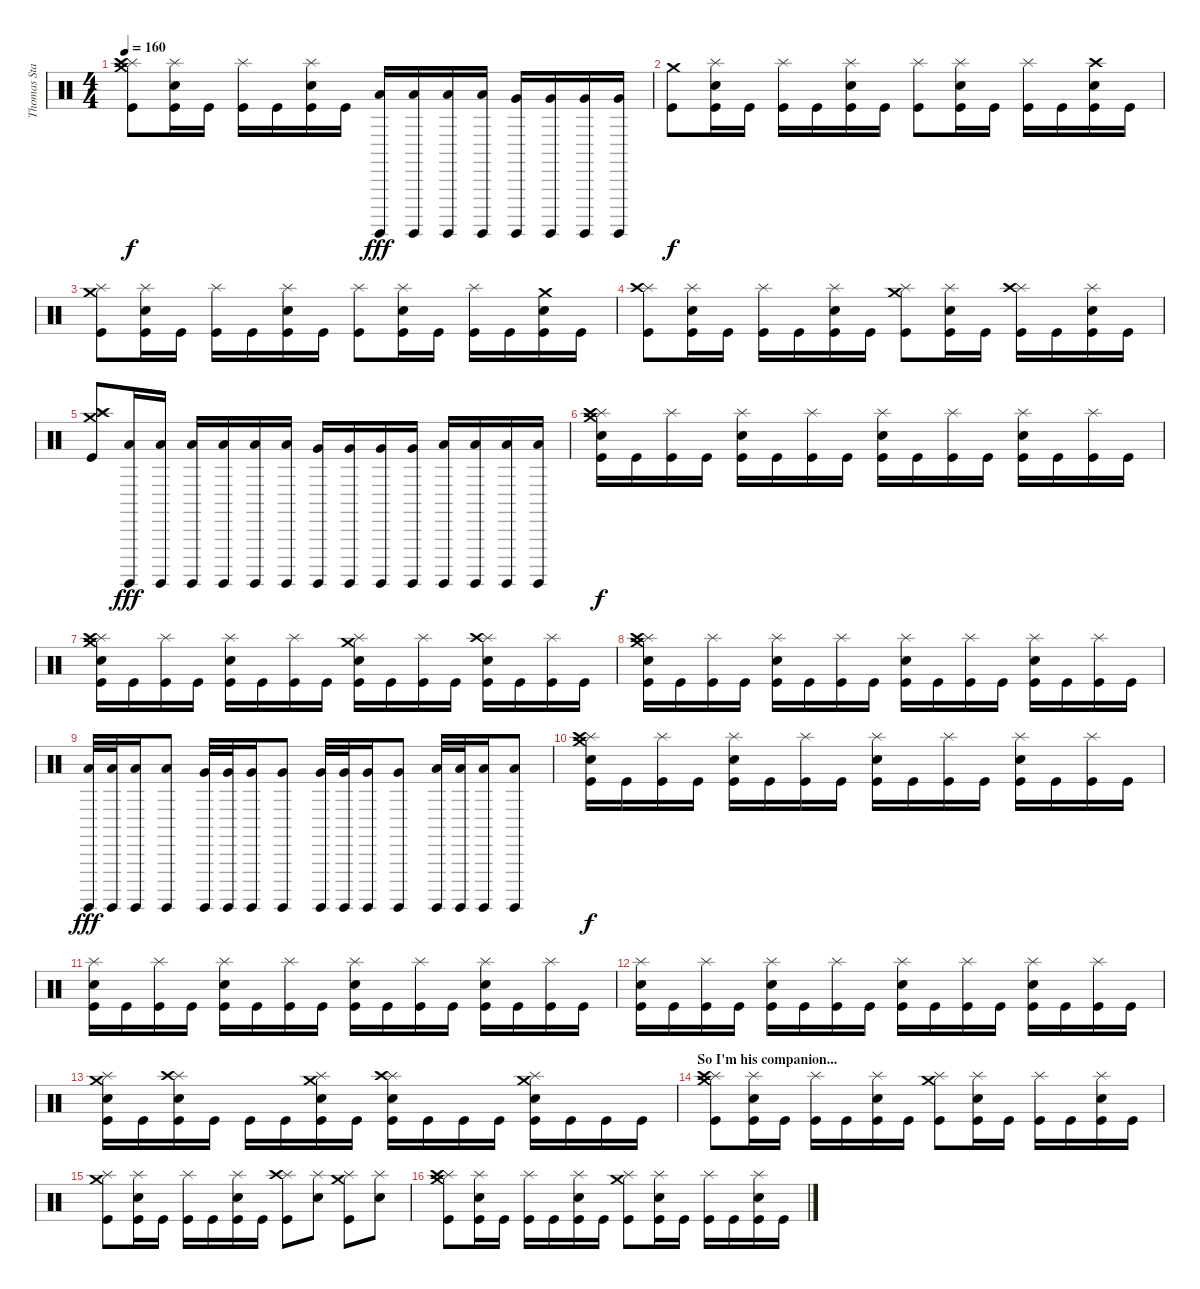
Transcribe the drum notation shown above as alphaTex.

\track ("Thomas Stauch" "Thomas Sta") {instrument percussion}
\staff {score}
\articulation defaults
\ts (4 4)
\tempo 160
\clef neutral
\ks c
("Crash medium (hit)" "Splash (hit)" "Crash high (hit)" "Kick (hit)").8{dy f} ("Splash (hit)" "Electric Snare (hit)" "Kick (hit)").16 "Kick (hit)".16 ("Splash (hit)" "Kick (hit)").16 "Kick (hit)".16 ("Splash (hit)" "Electric Snare (hit)" "Kick (hit)").16 "Kick (hit)".16 ("Surdo (hit)" "Low Tom (hit)").16{dy fff} ("Surdo (hit)" "Low Tom (hit)").16 ("Surdo (hit)" "Low Tom (hit)").16 ("Surdo (hit)" "Low Tom (hit)").16 ("Surdo (hit)" "Very Low Tom (hit)").16 ("Surdo (hit)" "Very Low Tom (hit)").16 ("Surdo (hit)" "Very Low Tom (hit)").16 ("Surdo (hit)" "Very Low Tom (hit)").16 |
("Crash medium (hit)" "Kick (hit)").8{dy f} ("Splash (hit)" "Electric Snare (hit)" "Kick (hit)").16 "Kick (hit)".16 ("Splash (hit)" "Kick (hit)").16 "Kick (hit)".16 ("Splash (hit)" "Electric Snare (hit)" "Kick (hit)").16 "Kick (hit)".16 ("Splash (hit)" "Kick (hit)").8 ("Splash (hit)" "Electric Snare (hit)" "Kick (hit)").16 "Kick (hit)".16 ("Splash (hit)" "Kick (hit)").16 "Kick (hit)".16 ("Crash high (hit)" "Electric Snare (hit)" "Kick (hit)").16 "Kick (hit)".16 |
("Crash medium (hit)" "Splash (hit)" "Kick (hit)").8 ("Splash (hit)" "Electric Snare (hit)" "Kick (hit)").16 "Kick (hit)".16 ("Splash (hit)" "Kick (hit)").16 "Kick (hit)".16 ("Splash (hit)" "Electric Snare (hit)" "Kick (hit)").16 "Kick (hit)".16 ("Splash (hit)" "Kick (hit)").8 ("Splash (hit)" "Electric Snare (hit)" "Kick (hit)").16 "Kick (hit)".16 ("Splash (hit)" "Kick (hit)").16 "Kick (hit)".16 ("Crash medium (hit)" "Electric Snare (hit)" "Kick (hit)").16 "Kick (hit)".16 |
("Splash (hit)" "Crash high (hit)" "Kick (hit)").8 ("Splash (hit)" "Electric Snare (hit)" "Kick (hit)").16 "Kick (hit)".16 ("Splash (hit)" "Kick (hit)").16 "Kick (hit)".16 ("Splash (hit)" "Electric Snare (hit)" "Kick (hit)").16 "Kick (hit)".16 ("Crash medium (hit)" "Splash (hit)" "Kick (hit)").8 ("Splash (hit)" "Electric Snare (hit)" "Kick (hit)").16 "Kick (hit)".16 ("Splash (hit)" "Crash high (hit)" "Kick (hit)").16 "Kick (hit)".16 ("Splash (hit)" "Electric Snare (hit)" "Kick (hit)").16 "Kick (hit)".16 |
("Crash medium (hit)" "Splash (hit)" "Crash high (hit)" "Kick (hit)").8 ("Surdo (hit)" "Low Tom (hit)").16{dy fff} ("Surdo (hit)" "Low Tom (hit)").16 ("Surdo (hit)" "Low Tom (hit)").16 ("Surdo (hit)" "Low Tom (hit)").16 ("Surdo (hit)" "Low Tom (hit)").16 ("Surdo (hit)" "Low Tom (hit)").16 ("Surdo (hit)" "Very Low Tom (hit)").16 ("Surdo (hit)" "Very Low Tom (hit)").16 ("Surdo (hit)" "Very Low Tom (hit)").16 ("Surdo (hit)" "Very Low Tom (hit)").16 ("Surdo (hit)" "Low Floor Tom (hit)").16 ("Surdo (hit)" "Low Floor Tom (hit)").16 ("Surdo (hit)" "Low Floor Tom (hit)").16 ("Surdo (hit)" "Low Floor Tom (hit)").16 |
("Crash medium (hit)" "Splash (hit)" "Crash high (hit)" "Electric Snare (hit)" "Kick (hit)").16{dy f} "Kick (hit)".16 ("Splash (hit)" "Kick (hit)").16 "Kick (hit)".16 ("Splash (hit)" "Electric Snare (hit)" "Kick (hit)").16 "Kick (hit)".16 ("Splash (hit)" "Kick (hit)").16 "Kick (hit)".16 ("Splash (hit)" "Electric Snare (hit)" "Kick (hit)").16 "Kick (hit)".16 ("Splash (hit)" "Kick (hit)").16 "Kick (hit)".16 ("Splash (hit)" "Electric Snare (hit)" "Kick (hit)").16 "Kick (hit)".16 ("Splash (hit)" "Kick (hit)").16 "Kick (hit)".16 |
("Crash medium (hit)" "Splash (hit)" "Crash high (hit)" "Electric Snare (hit)" "Kick (hit)").16 "Kick (hit)".16 ("Splash (hit)" "Kick (hit)").16 "Kick (hit)".16 ("Splash (hit)" "Electric Snare (hit)" "Kick (hit)").16 "Kick (hit)".16 ("Splash (hit)" "Kick (hit)").16 "Kick (hit)".16 ("Crash medium (hit)" "Splash (hit)" "Electric Snare (hit)" "Kick (hit)").16 "Kick (hit)".16 ("Splash (hit)" "Kick (hit)").16 "Kick (hit)".16 ("Splash (hit)" "Crash high (hit)" "Electric Snare (hit)" "Kick (hit)").16 "Kick (hit)".16 ("Splash (hit)" "Kick (hit)").16 "Kick (hit)".16 |
("Crash medium (hit)" "Splash (hit)" "Crash high (hit)" "Electric Snare (hit)" "Kick (hit)").16 "Kick (hit)".16 ("Splash (hit)" "Kick (hit)").16 "Kick (hit)".16 ("Splash (hit)" "Electric Snare (hit)" "Kick (hit)").16 "Kick (hit)".16 ("Splash (hit)" "Kick (hit)").16 "Kick (hit)".16 ("Splash (hit)" "Electric Snare (hit)" "Kick (hit)").16 "Kick (hit)".16 ("Splash (hit)" "Kick (hit)").16 "Kick (hit)".16 ("Splash (hit)" "Electric Snare (hit)" "Kick (hit)").16 "Kick (hit)".16 ("Splash (hit)" "Kick (hit)").16 "Kick (hit)".16 |
("Surdo (hit)" "Low Tom (hit)").32{dy fff} ("Surdo (hit)" "Low Tom (hit)").32 ("Surdo (hit)" "Low Tom (hit)").16 ("Surdo (hit)" "Low Tom (hit)").8 ("Surdo (hit)" "Very Low Tom (hit)").32 ("Surdo (hit)" "Very Low Tom (hit)").32 ("Surdo (hit)" "Very Low Tom (hit)").16 ("Surdo (hit)" "Very Low Tom (hit)").8 ("Surdo (hit)" "Very Low Tom (hit)").32 ("Surdo (hit)" "Very Low Tom (hit)").32 ("Surdo (hit)" "Very Low Tom (hit)").16 ("Surdo (hit)" "Very Low Tom (hit)").8 ("Surdo (hit)" "Low Floor Tom (hit)").32 ("Surdo (hit)" "Low Floor Tom (hit)").32 ("Surdo (hit)" "Low Floor Tom (hit)").16 ("Surdo (hit)" "Low Floor Tom (hit)").8 |
("Crash medium (hit)" "Splash (hit)" "Crash high (hit)" "Electric Snare (hit)" "Kick (hit)").16{dy f} "Kick (hit)".16 ("Splash (hit)" "Kick (hit)").16 "Kick (hit)".16 ("Splash (hit)" "Electric Snare (hit)" "Kick (hit)").16 "Kick (hit)".16 ("Splash (hit)" "Kick (hit)").16 "Kick (hit)".16 ("Splash (hit)" "Electric Snare (hit)" "Kick (hit)").16 "Kick (hit)".16 ("Splash (hit)" "Kick (hit)").16 "Kick (hit)".16 ("Splash (hit)" "Electric Snare (hit)" "Kick (hit)").16 "Kick (hit)".16 ("Splash (hit)" "Kick (hit)").16 "Kick (hit)".16 |
("Splash (hit)" "Electric Snare (hit)" "Kick (hit)").16 "Kick (hit)".16 ("Splash (hit)" "Kick (hit)").16 "Kick (hit)".16 ("Splash (hit)" "Electric Snare (hit)" "Kick (hit)").16 "Kick (hit)".16 ("Splash (hit)" "Kick (hit)").16 "Kick (hit)".16 ("Splash (hit)" "Electric Snare (hit)" "Kick (hit)").16 "Kick (hit)".16 ("Splash (hit)" "Kick (hit)").16 "Kick (hit)".16 ("Splash (hit)" "Electric Snare (hit)" "Kick (hit)").16 "Kick (hit)".16 ("Splash (hit)" "Kick (hit)").16 "Kick (hit)".16 |
("Splash (hit)" "Electric Snare (hit)" "Kick (hit)").16 "Kick (hit)".16 ("Splash (hit)" "Kick (hit)").16 "Kick (hit)".16 ("Splash (hit)" "Electric Snare (hit)" "Kick (hit)").16 "Kick (hit)".16 ("Splash (hit)" "Kick (hit)").16 "Kick (hit)".16 ("Splash (hit)" "Electric Snare (hit)" "Kick (hit)").16 "Kick (hit)".16 ("Splash (hit)" "Kick (hit)").16 "Kick (hit)".16 ("Splash (hit)" "Electric Snare (hit)" "Kick (hit)").16 "Kick (hit)".16 ("Splash (hit)" "Kick (hit)").16 "Kick (hit)".16 |
("Crash medium (hit)" "Splash (hit)" "Electric Snare (hit)" "Kick (hit)").16 "Kick (hit)".16 ("Splash (hit)" "Crash high (hit)" "Electric Snare (hit)" "Kick (hit)").16 "Kick (hit)".16 "Kick (hit)".16 "Kick (hit)".16 ("Crash medium (hit)" "Splash (hit)" "Electric Snare (hit)" "Kick (hit)").16 "Kick (hit)".16 ("Splash (hit)" "Crash high (hit)" "Electric Snare (hit)" "Kick (hit)").16 "Kick (hit)".16 "Kick (hit)".16 "Kick (hit)".16 ("Crash medium (hit)" "Splash (hit)" "Electric Snare (hit)" "Kick (hit)").16 "Kick (hit)".16 "Kick (hit)".16 "Kick (hit)".16 |
\section ("" "So I'm his companion...")
("Crash medium (hit)" "Splash (hit)" "Crash high (hit)" "Kick (hit)").8 ("Splash (hit)" "Electric Snare (hit)" "Kick (hit)").16 "Kick (hit)".16 ("Splash (hit)" "Kick (hit)").16 "Kick (hit)".16 ("Splash (hit)" "Electric Snare (hit)" "Kick (hit)").16 "Kick (hit)".16 ("Crash medium (hit)" "Splash (hit)" "Kick (hit)").8 ("Splash (hit)" "Electric Snare (hit)" "Kick (hit)").16 "Kick (hit)".16 ("Splash (hit)" "Kick (hit)").16 "Kick (hit)".16 ("Splash (hit)" "Electric Snare (hit)" "Kick (hit)").16 "Kick (hit)".16 |
("Crash medium (hit)" "Splash (hit)" "Kick (hit)").8 ("Splash (hit)" "Electric Snare (hit)" "Kick (hit)").16 "Kick (hit)".16 ("Splash (hit)" "Kick (hit)").16 "Kick (hit)".16 ("Splash (hit)" "Electric Snare (hit)" "Kick (hit)").16 "Kick (hit)".16 ("Splash (hit)" "Crash high (hit)" "Kick (hit)").8 ("Splash (hit)" "Electric Snare (hit)").8 ("Crash medium (hit)" "Splash (hit)" "Kick (hit)").8 ("Splash (hit)" "Electric Snare (hit)").8 |
("Crash medium (hit)" "Splash (hit)" "Crash high (hit)" "Kick (hit)").8 ("Splash (hit)" "Electric Snare (hit)" "Kick (hit)").16 "Kick (hit)".16 ("Splash (hit)" "Kick (hit)").16 "Kick (hit)".16 ("Splash (hit)" "Electric Snare (hit)" "Kick (hit)").16 "Kick (hit)".16 ("Crash medium (hit)" "Splash (hit)" "Kick (hit)").8 ("Splash (hit)" "Electric Snare (hit)" "Kick (hit)").16 "Kick (hit)".16 ("Splash (hit)" "Kick (hit)").16 "Kick (hit)".16 ("Splash (hit)" "Electric Snare (hit)" "Kick (hit)").16 "Kick (hit)".16
